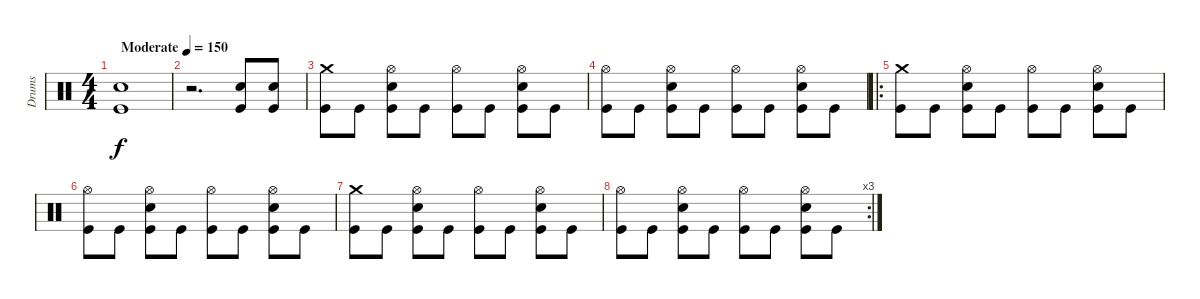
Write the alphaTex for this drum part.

\track ("Drums" "Drums") {instrument percussion}
\staff {score}
\articulation defaults
\ts (4 4)
\tempo (150 "Moderate")
\clef neutral
\ks c
("Snare (hit) 2" "Kick (hit)").1{dy f} |
r.2{d} ("Snare (hit) 2" "Kick (hit)").8 ("Snare (hit) 2" "Kick (hit)").8 |
("Crash medium (hit)" "Kick (hit)").8 "Kick (hit)".8 ("Hi-Hat (open)" "Snare (hit) 2" "Kick (hit)").8 "Kick (hit)".8 ("Hi-Hat (open)" "Kick (hit)").8 "Kick (hit)".8 ("Hi-Hat (open)" "Snare (hit) 2" "Kick (hit)").8 "Kick (hit)".8 |
("Hi-Hat (open)" "Kick (hit)").8 "Kick (hit)".8 ("Hi-Hat (open)" "Snare (hit) 2" "Kick (hit)").8 "Kick (hit)".8 ("Hi-Hat (open)" "Kick (hit)").8 "Kick (hit)".8 ("Hi-Hat (open)" "Snare (hit) 2" "Kick (hit)").8 "Kick (hit)".8 |
\ro
("Crash medium (hit)" "Kick (hit)").8 "Kick (hit)".8 ("Hi-Hat (open)" "Snare (hit) 2" "Kick (hit)").8 "Kick (hit)".8 ("Hi-Hat (open)" "Kick (hit)").8 "Kick (hit)".8 ("Hi-Hat (open)" "Snare (hit) 2" "Kick (hit)").8 "Kick (hit)".8 |
("Hi-Hat (open)" "Kick (hit)").8 "Kick (hit)".8 ("Hi-Hat (open)" "Snare (hit) 2" "Kick (hit)").8 "Kick (hit)".8 ("Hi-Hat (open)" "Kick (hit)").8 "Kick (hit)".8 ("Hi-Hat (open)" "Snare (hit) 2" "Kick (hit)").8 "Kick (hit)".8 |
("Crash medium (hit)" "Kick (hit)").8 "Kick (hit)".8 ("Hi-Hat (open)" "Snare (hit) 2" "Kick (hit)").8 "Kick (hit)".8 ("Hi-Hat (open)" "Kick (hit)").8 "Kick (hit)".8 ("Hi-Hat (open)" "Snare (hit) 2" "Kick (hit)").8 "Kick (hit)".8 |
\rc 3
("Hi-Hat (open)" "Kick (hit)").8 "Kick (hit)".8 ("Hi-Hat (open)" "Snare (hit) 2" "Kick (hit)").8 "Kick (hit)".8 ("Hi-Hat (open)" "Kick (hit)").8 "Kick (hit)".8 ("Hi-Hat (open)" "Snare (hit) 2" "Kick (hit)").8 "Kick (hit)".8
